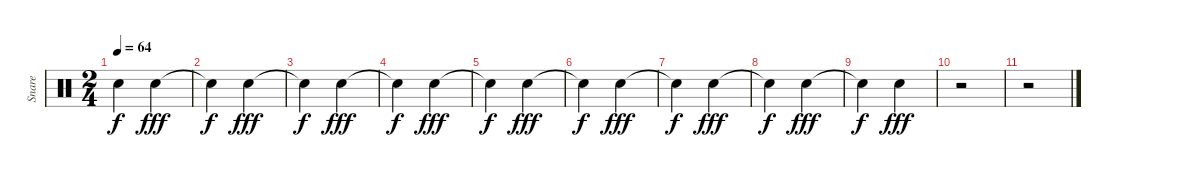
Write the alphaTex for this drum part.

\track ("Snare" "Snare") {instrument percussion}
\staff {score}
\articulation defaults
\ts (2 4)
\tempo 64
\clef neutral
\ks c "Snare (hit)"{t}.4{dy f} "Snare (hit) 2".4{dy fff}
|
"Snare (hit)"{t}.4{dy f} "Snare (hit) 2".4{dy fff} |
"Snare (hit)"{t}.4{dy f} "Snare (hit) 2".4{dy fff} |
"Snare (hit)"{t}.4{dy f} "Snare (hit) 2".4{dy fff} |
"Snare (hit)"{t}.4{dy f} "Snare (hit) 2".4{dy fff} |
"Snare (hit)"{t}.4{dy f} "Snare (hit) 2".4{dy fff} |
"Snare (hit)"{t}.4{dy f} "Snare (hit) 2".4{dy fff} |
"Snare (hit)"{t}.4{dy f} "Snare (hit) 2".4{dy fff} |
"Snare (hit)"{t}.4{dy f} "Snare (hit) 2".4{dy fff} |
r.2 |
r.2
